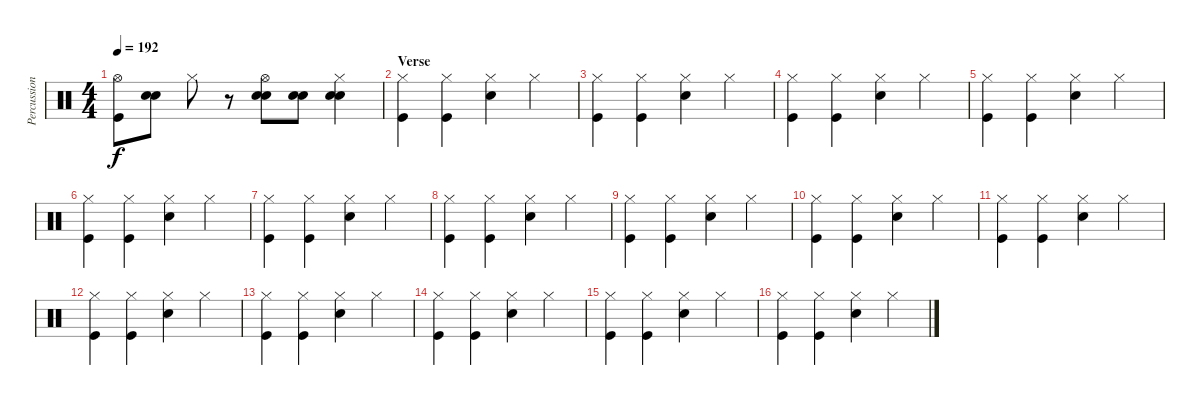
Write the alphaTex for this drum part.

\track ("Percussion" "Percussion") {instrument percussion}
\staff {score}
\articulation defaults
\ts (4 4)
\tempo 192
\clef neutral
\ks c
("Hi-Hat (open)" "Kick (hit)").8{dy f} ("Electric Snare (hit)" "Electric Snare (hit)").8 "Hi-Hat (closed)".8 r.8 ("Hi-Hat (open)" "Electric Snare (hit)" "Electric Snare (hit)").8 ("Electric Snare (hit)" "Electric Snare (hit)").8 ("Hi-Hat (closed)" "Electric Snare (hit)" "Electric Snare (hit)").4 |
\section ("" "Verse")
("Hi-Hat (closed)" "Kick (hit)").4 ("Hi-Hat (closed)" "Kick (hit)").4 ("Hi-Hat (closed)" "Electric Snare (hit)").4 "Hi-Hat (closed)".4 |
("Hi-Hat (closed)" "Kick (hit)").4 ("Hi-Hat (closed)" "Kick (hit)").4 ("Hi-Hat (closed)" "Electric Snare (hit)").4 "Hi-Hat (closed)".4 |
("Hi-Hat (closed)" "Kick (hit)").4 ("Hi-Hat (closed)" "Kick (hit)").4 ("Hi-Hat (closed)" "Electric Snare (hit)").4 "Hi-Hat (closed)".4 |
("Hi-Hat (closed)" "Kick (hit)").4 ("Hi-Hat (closed)" "Kick (hit)").4 ("Hi-Hat (closed)" "Electric Snare (hit)").4 "Hi-Hat (closed)".4 |
("Hi-Hat (closed)" "Kick (hit)").4 ("Hi-Hat (closed)" "Kick (hit)").4 ("Hi-Hat (closed)" "Electric Snare (hit)").4 "Hi-Hat (closed)".4 |
("Hi-Hat (closed)" "Kick (hit)").4 ("Hi-Hat (closed)" "Kick (hit)").4 ("Hi-Hat (closed)" "Electric Snare (hit)").4 "Hi-Hat (closed)".4 |
("Hi-Hat (closed)" "Kick (hit)").4 ("Hi-Hat (closed)" "Kick (hit)").4 ("Hi-Hat (closed)" "Electric Snare (hit)").4 "Hi-Hat (closed)".4 |
("Hi-Hat (closed)" "Kick (hit)").4 ("Hi-Hat (closed)" "Kick (hit)").4 ("Hi-Hat (closed)" "Electric Snare (hit)").4 "Hi-Hat (closed)".4 |
("Hi-Hat (closed)" "Kick (hit)").4 ("Hi-Hat (closed)" "Kick (hit)").4 ("Hi-Hat (closed)" "Electric Snare (hit)").4 "Hi-Hat (closed)".4 |
("Hi-Hat (closed)" "Kick (hit)").4 ("Hi-Hat (closed)" "Kick (hit)").4 ("Hi-Hat (closed)" "Electric Snare (hit)").4 "Hi-Hat (closed)".4 |
("Hi-Hat (closed)" "Kick (hit)").4 ("Hi-Hat (closed)" "Kick (hit)").4 ("Hi-Hat (closed)" "Electric Snare (hit)").4 "Hi-Hat (closed)".4 |
("Hi-Hat (closed)" "Kick (hit)").4 ("Hi-Hat (closed)" "Kick (hit)").4 ("Hi-Hat (closed)" "Electric Snare (hit)").4 "Hi-Hat (closed)".4 |
("Hi-Hat (closed)" "Kick (hit)").4 ("Hi-Hat (closed)" "Kick (hit)").4 ("Hi-Hat (closed)" "Electric Snare (hit)").4 "Hi-Hat (closed)".4 |
("Hi-Hat (closed)" "Kick (hit)").4 ("Hi-Hat (closed)" "Kick (hit)").4 ("Hi-Hat (closed)" "Electric Snare (hit)").4 "Hi-Hat (closed)".4 |
("Hi-Hat (closed)" "Kick (hit)").4 ("Hi-Hat (closed)" "Kick (hit)").4 ("Hi-Hat (closed)" "Electric Snare (hit)").4 "Hi-Hat (closed)".4
